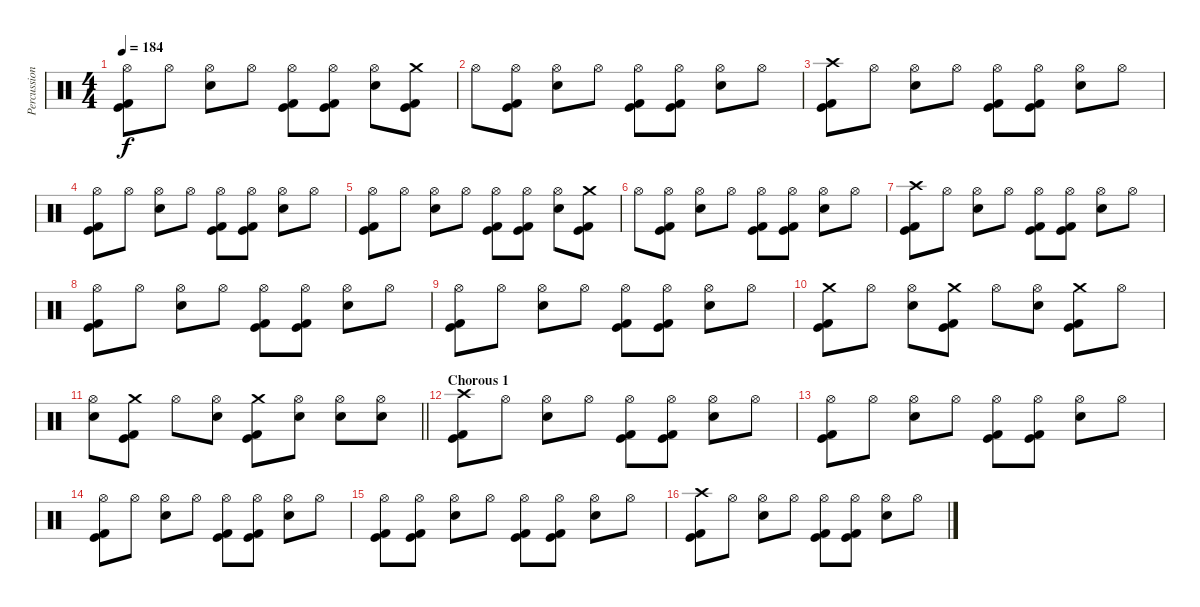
\track ("Percussion" "Percussion") {instrument percussion}
\staff {score}
\articulation defaults
\ts (4 4)
\tempo 184
\clef neutral
\ks c
("Hi-Hat (open)" "Kick (hit)" "Kick (hit) 2").8{dy f} "Hi-Hat (open)".8 ("Hi-Hat (open)" "Electric Snare (hit)").8 "Hi-Hat (open)".8 ("Hi-Hat (open)" "Kick (hit)" "Kick (hit) 2").8 ("Hi-Hat (open)" "Kick (hit)" "Kick (hit) 2").8 ("Hi-Hat (open)" "Electric Snare (hit)").8 ("Crash medium (hit)" "Kick (hit)" "Kick (hit) 2").8 |
"Hi-Hat (open)".8 ("Hi-Hat (open)" "Kick (hit)" "Kick (hit) 2").8 ("Hi-Hat (open)" "Electric Snare (hit)").8 "Hi-Hat (open)".8 ("Hi-Hat (open)" "Kick (hit)" "Kick (hit) 2").8 ("Hi-Hat (open)" "Kick (hit)" "Kick (hit) 2").8 ("Hi-Hat (open)" "Electric Snare (hit)").8 "Hi-Hat (open)".8 |
("Crash high (hit)" "Kick (hit)" "Kick (hit) 2").8 "Hi-Hat (open)".8 ("Hi-Hat (open)" "Electric Snare (hit)").8 "Hi-Hat (open)".8 ("Hi-Hat (open)" "Kick (hit)" "Kick (hit) 2").8 ("Hi-Hat (open)" "Kick (hit)" "Kick (hit) 2").8 ("Hi-Hat (open)" "Electric Snare (hit)").8 "Hi-Hat (open)".8 |
("Hi-Hat (open)" "Kick (hit)" "Kick (hit) 2").8 "Hi-Hat (open)".8 ("Hi-Hat (open)" "Electric Snare (hit)").8 "Hi-Hat (open)".8 ("Hi-Hat (open)" "Kick (hit)" "Kick (hit) 2").8 ("Hi-Hat (open)" "Kick (hit)" "Kick (hit) 2").8 ("Hi-Hat (open)" "Electric Snare (hit)").8 "Hi-Hat (open)".8 |
("Hi-Hat (open)" "Kick (hit)" "Kick (hit) 2").8 "Hi-Hat (open)".8 ("Hi-Hat (open)" "Electric Snare (hit)").8 "Hi-Hat (open)".8 ("Hi-Hat (open)" "Kick (hit)" "Kick (hit) 2").8 ("Hi-Hat (open)" "Kick (hit)" "Kick (hit) 2").8 ("Hi-Hat (open)" "Electric Snare (hit)").8 ("Crash medium (hit)" "Kick (hit)" "Kick (hit) 2").8 |
"Hi-Hat (open)".8 ("Hi-Hat (open)" "Kick (hit)" "Kick (hit) 2").8 ("Hi-Hat (open)" "Electric Snare (hit)").8 "Hi-Hat (open)".8 ("Hi-Hat (open)" "Kick (hit)" "Kick (hit) 2").8 ("Hi-Hat (open)" "Kick (hit)" "Kick (hit) 2").8 ("Hi-Hat (open)" "Electric Snare (hit)").8 "Hi-Hat (open)".8 |
("Crash high (hit)" "Kick (hit)" "Kick (hit) 2").8 "Hi-Hat (open)".8 ("Hi-Hat (open)" "Electric Snare (hit)").8 "Hi-Hat (open)".8 ("Hi-Hat (open)" "Kick (hit)" "Kick (hit) 2").8 ("Hi-Hat (open)" "Kick (hit)" "Kick (hit) 2").8 ("Hi-Hat (open)" "Electric Snare (hit)").8 "Hi-Hat (open)".8 |
("Hi-Hat (open)" "Kick (hit)" "Kick (hit) 2").8 "Hi-Hat (open)".8 ("Hi-Hat (open)" "Electric Snare (hit)").8 "Hi-Hat (open)".8 ("Hi-Hat (open)" "Kick (hit)" "Kick (hit) 2").8 ("Hi-Hat (open)" "Kick (hit)" "Kick (hit) 2").8 ("Hi-Hat (open)" "Electric Snare (hit)").8 "Hi-Hat (open)".8 |
("Hi-Hat (open)" "Kick (hit)" "Kick (hit) 2").8 "Hi-Hat (open)".8 ("Hi-Hat (open)" "Electric Snare (hit)").8 "Hi-Hat (open)".8 ("Hi-Hat (open)" "Kick (hit)" "Kick (hit) 2").8 ("Hi-Hat (open)" "Kick (hit)" "Kick (hit) 2").8 ("Hi-Hat (open)" "Electric Snare (hit)").8 "Hi-Hat (open)".8 |
("Crash medium (hit)" "Kick (hit)" "Kick (hit) 2").8 "Hi-Hat (open)".8 ("Hi-Hat (open)" "Electric Snare (hit)").8 ("Crash medium (hit)" "Kick (hit)" "Kick (hit) 2").8 "Hi-Hat (open)".8 ("Hi-Hat (open)" "Electric Snare (hit)").8 ("Crash medium (hit)" "Kick (hit)" "Kick (hit) 2").8 "Hi-Hat (open)".8 |
\barLineRight lightlight
("Hi-Hat (open)" "Electric Snare (hit)").8 ("Crash medium (hit)" "Kick (hit)" "Kick (hit) 2").8 "Hi-Hat (open)".8 ("Hi-Hat (open)" "Electric Snare (hit)").8 ("Crash medium (hit)" "Kick (hit)" "Kick (hit) 2").8 ("Hi-Hat (open)" "Electric Snare (hit)").8 ("Hi-Hat (open)" "Electric Snare (hit)").8 ("Hi-Hat (open)" "Electric Snare (hit)").8 |
\section ("" "Chorous 1")
("Crash high (hit)" "Kick (hit)" "Kick (hit) 2").8 "Hi-Hat (open)".8 ("Hi-Hat (open)" "Electric Snare (hit)").8 "Hi-Hat (open)".8 ("Hi-Hat (open)" "Kick (hit)" "Kick (hit) 2").8 ("Hi-Hat (open)" "Kick (hit)" "Kick (hit) 2").8 ("Hi-Hat (open)" "Electric Snare (hit)").8 "Hi-Hat (open)".8 |
("Hi-Hat (open)" "Kick (hit)" "Kick (hit) 2").8 "Hi-Hat (open)".8 ("Hi-Hat (open)" "Electric Snare (hit)").8 "Hi-Hat (open)".8 ("Hi-Hat (open)" "Kick (hit)" "Kick (hit) 2").8 ("Hi-Hat (open)" "Kick (hit)" "Kick (hit) 2").8 ("Hi-Hat (open)" "Electric Snare (hit)").8 "Hi-Hat (open)".8 |
("Hi-Hat (open)" "Kick (hit)" "Kick (hit) 2").8 "Hi-Hat (open)".8 ("Hi-Hat (open)" "Electric Snare (hit)").8 "Hi-Hat (open)".8 ("Hi-Hat (open)" "Kick (hit)" "Kick (hit) 2").8 ("Hi-Hat (open)" "Kick (hit)" "Kick (hit) 2").8 ("Hi-Hat (open)" "Electric Snare (hit)").8 "Hi-Hat (open)".8 |
("Hi-Hat (open)" "Kick (hit)" "Kick (hit) 2").8 ("Hi-Hat (open)" "Kick (hit)" "Kick (hit) 2").8 ("Hi-Hat (open)" "Electric Snare (hit)").8 "Hi-Hat (open)".8 ("Hi-Hat (open)" "Kick (hit)" "Kick (hit) 2").8 ("Hi-Hat (open)" "Kick (hit)" "Kick (hit) 2").8 ("Hi-Hat (open)" "Electric Snare (hit)").8 "Hi-Hat (open)".8 |
("Crash high (hit)" "Kick (hit)" "Kick (hit) 2").8 "Hi-Hat (open)".8 ("Hi-Hat (open)" "Electric Snare (hit)").8 "Hi-Hat (open)".8 ("Hi-Hat (open)" "Kick (hit)" "Kick (hit) 2").8 ("Hi-Hat (open)" "Kick (hit)" "Kick (hit) 2").8 ("Hi-Hat (open)" "Electric Snare (hit)").8 "Hi-Hat (open)".8
